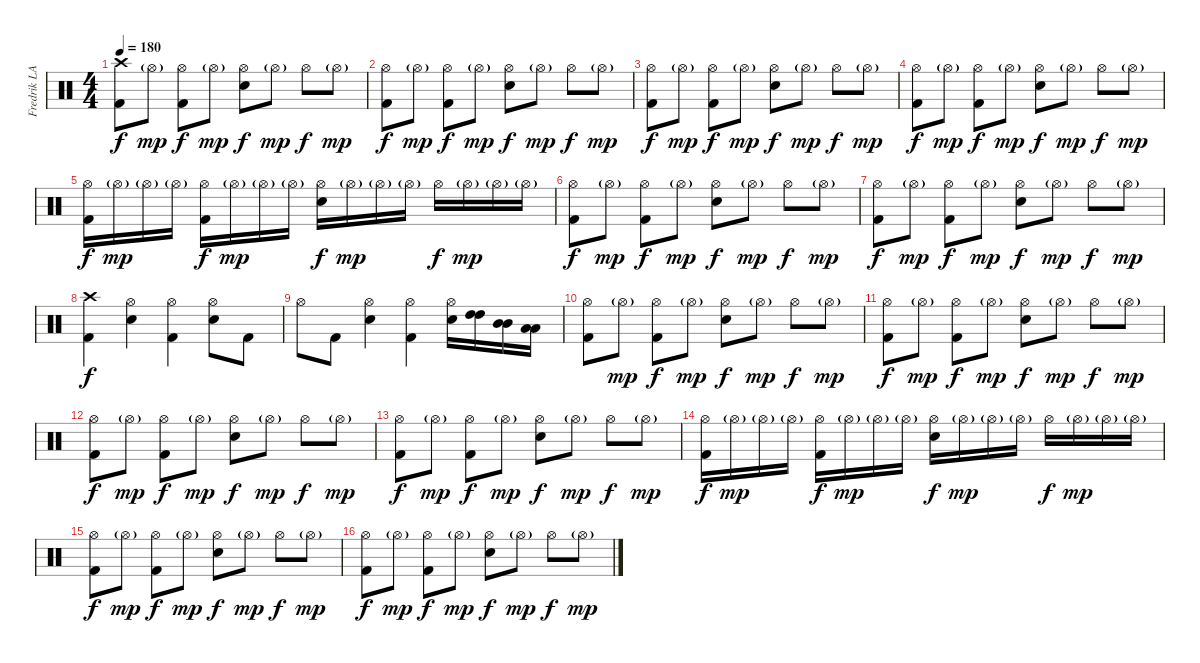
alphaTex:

\track ("Fredrik LARZON" "Fredrik LA") {instrument percussion}
\staff {score}
\articulation defaults
\ts (4 4)
\tempo 180
\clef neutral
\ks c
("Crash high (hit)" "Kick (hit) 2").8{dy f} "Hi-Hat (open)"{g}.8{dy mp} ("Hi-Hat (open)" "Kick (hit) 2").8{dy f} "Hi-Hat (open)"{g}.8{dy mp} ("Hi-Hat (open)" "Electric Snare (hit)").8{dy f} "Hi-Hat (open)"{g}.8{dy mp} "Hi-Hat (open)".8{dy f} "Hi-Hat (open)"{g}.8{dy mp} |
("Hi-Hat (open)" "Kick (hit) 2").8{dy f} "Hi-Hat (open)"{g}.8{dy mp} ("Hi-Hat (open)" "Kick (hit) 2").8{dy f} "Hi-Hat (open)"{g}.8{dy mp} ("Hi-Hat (open)" "Electric Snare (hit)").8{dy f} "Hi-Hat (open)"{g}.8{dy mp} "Hi-Hat (open)".8{dy f} "Hi-Hat (open)"{g}.8{dy mp} |
("Hi-Hat (open)" "Kick (hit) 2").8{dy f} "Hi-Hat (open)"{g}.8{dy mp} ("Hi-Hat (open)" "Kick (hit) 2").8{dy f} "Hi-Hat (open)"{g}.8{dy mp} ("Hi-Hat (open)" "Electric Snare (hit)").8{dy f} "Hi-Hat (open)"{g}.8{dy mp} "Hi-Hat (open)".8{dy f} "Hi-Hat (open)"{g}.8{dy mp} |
("Hi-Hat (open)" "Kick (hit) 2").8{dy f} "Hi-Hat (open)"{g}.8{dy mp} ("Hi-Hat (open)" "Kick (hit) 2").8{dy f} "Hi-Hat (open)"{g}.8{dy mp} ("Hi-Hat (open)" "Electric Snare (hit)").8{dy f} "Hi-Hat (open)"{g}.8{dy mp} "Hi-Hat (open)".8{dy f} "Hi-Hat (open)"{g}.8{dy mp} |
("Hi-Hat (open)" "Kick (hit) 2").16{dy f} "Hi-Hat (open)"{g}.16{dy mp} "Hi-Hat (open)"{g}.16 "Hi-Hat (open)"{g}.16 ("Hi-Hat (open)" "Kick (hit) 2").16{dy f} "Hi-Hat (open)"{g}.16{dy mp} "Hi-Hat (open)"{g}.16 "Hi-Hat (open)"{g}.16 ("Hi-Hat (open)" "Electric Snare (hit)").16{dy f} "Hi-Hat (open)"{g}.16{dy mp} "Hi-Hat (open)"{g}.16 "Hi-Hat (open)"{g}.16 "Hi-Hat (open)".16{dy f} "Hi-Hat (open)"{g}.16{dy mp} "Hi-Hat (open)"{g}.16 "Hi-Hat (open)"{g}.16 |
("Hi-Hat (open)" "Kick (hit) 2").8{dy f} "Hi-Hat (open)"{g}.8{dy mp} ("Hi-Hat (open)" "Kick (hit) 2").8{dy f} "Hi-Hat (open)"{g}.8{dy mp} ("Hi-Hat (open)" "Electric Snare (hit)").8{dy f} "Hi-Hat (open)"{g}.8{dy mp} "Hi-Hat (open)".8{dy f} "Hi-Hat (open)"{g}.8{dy mp} |
("Hi-Hat (open)" "Kick (hit) 2").8{dy f} "Hi-Hat (open)"{g}.8{dy mp} ("Hi-Hat (open)" "Kick (hit) 2").8{dy f} "Hi-Hat (open)"{g}.8{dy mp} ("Hi-Hat (open)" "Electric Snare (hit)").8{dy f} "Hi-Hat (open)"{g}.8{dy mp} "Hi-Hat (open)".8{dy f} "Hi-Hat (open)"{g}.8{dy mp} |
("Crash high (hit)" "Kick (hit) 2").4{dy f} ("Hi-Hat (open)" "Electric Snare (hit)").4 ("Hi-Hat (open)" "Kick (hit) 2").4 ("Hi-Hat (open)" "Electric Snare (hit)").8 "Kick (hit) 2".8 |
"Hi-Hat (open)".8 "Kick (hit) 2".8 ("Hi-Hat (open)" "Electric Snare (hit)").4 ("Hi-Hat (open)" "Kick (hit) 2").4 ("Hi-Hat (open)" "Electric Snare (hit)").16 ("High Tom (hit)" "High Tom (hit)").16 ("Mid Tom (hit)" "Mid Tom (hit)").16 ("Low Tom (hit)" "Low Tom (hit)").16 |
("Hi-Hat (open)" "Kick (hit) 2").8 "Hi-Hat (open)"{g}.8{dy mp} ("Hi-Hat (open)" "Kick (hit) 2").8{dy f} "Hi-Hat (open)"{g}.8{dy mp} ("Hi-Hat (open)" "Electric Snare (hit)").8{dy f} "Hi-Hat (open)"{g}.8{dy mp} "Hi-Hat (open)".8{dy f} "Hi-Hat (open)"{g}.8{dy mp} |
("Hi-Hat (open)" "Kick (hit) 2").8{dy f} "Hi-Hat (open)"{g}.8{dy mp} ("Hi-Hat (open)" "Kick (hit) 2").8{dy f} "Hi-Hat (open)"{g}.8{dy mp} ("Hi-Hat (open)" "Electric Snare (hit)").8{dy f} "Hi-Hat (open)"{g}.8{dy mp} "Hi-Hat (open)".8{dy f} "Hi-Hat (open)"{g}.8{dy mp} |
("Hi-Hat (open)" "Kick (hit) 2").8{dy f} "Hi-Hat (open)"{g}.8{dy mp} ("Hi-Hat (open)" "Kick (hit) 2").8{dy f} "Hi-Hat (open)"{g}.8{dy mp} ("Hi-Hat (open)" "Electric Snare (hit)").8{dy f} "Hi-Hat (open)"{g}.8{dy mp} "Hi-Hat (open)".8{dy f} "Hi-Hat (open)"{g}.8{dy mp} |
("Hi-Hat (open)" "Kick (hit) 2").8{dy f} "Hi-Hat (open)"{g}.8{dy mp} ("Hi-Hat (open)" "Kick (hit) 2").8{dy f} "Hi-Hat (open)"{g}.8{dy mp} ("Hi-Hat (open)" "Electric Snare (hit)").8{dy f} "Hi-Hat (open)"{g}.8{dy mp} "Hi-Hat (open)".8{dy f} "Hi-Hat (open)"{g}.8{dy mp} |
("Hi-Hat (open)" "Kick (hit) 2").16{dy f} "Hi-Hat (open)"{g}.16{dy mp} "Hi-Hat (open)"{g}.16 "Hi-Hat (open)"{g}.16 ("Hi-Hat (open)" "Kick (hit) 2").16{dy f} "Hi-Hat (open)"{g}.16{dy mp} "Hi-Hat (open)"{g}.16 "Hi-Hat (open)"{g}.16 ("Hi-Hat (open)" "Electric Snare (hit)").16{dy f} "Hi-Hat (open)"{g}.16{dy mp} "Hi-Hat (open)"{g}.16 "Hi-Hat (open)"{g}.16 "Hi-Hat (open)".16{dy f} "Hi-Hat (open)"{g}.16{dy mp} "Hi-Hat (open)"{g}.16 "Hi-Hat (open)"{g}.16 |
("Hi-Hat (open)" "Kick (hit) 2").8{dy f} "Hi-Hat (open)"{g}.8{dy mp} ("Hi-Hat (open)" "Kick (hit) 2").8{dy f} "Hi-Hat (open)"{g}.8{dy mp} ("Hi-Hat (open)" "Electric Snare (hit)").8{dy f} "Hi-Hat (open)"{g}.8{dy mp} "Hi-Hat (open)".8{dy f} "Hi-Hat (open)"{g}.8{dy mp} |
("Hi-Hat (open)" "Kick (hit) 2").8{dy f} "Hi-Hat (open)"{g}.8{dy mp} ("Hi-Hat (open)" "Kick (hit) 2").8{dy f} "Hi-Hat (open)"{g}.8{dy mp} ("Hi-Hat (open)" "Electric Snare (hit)").8{dy f} "Hi-Hat (open)"{g}.8{dy mp} "Hi-Hat (open)".8{dy f} "Hi-Hat (open)"{g}.8{dy mp}
